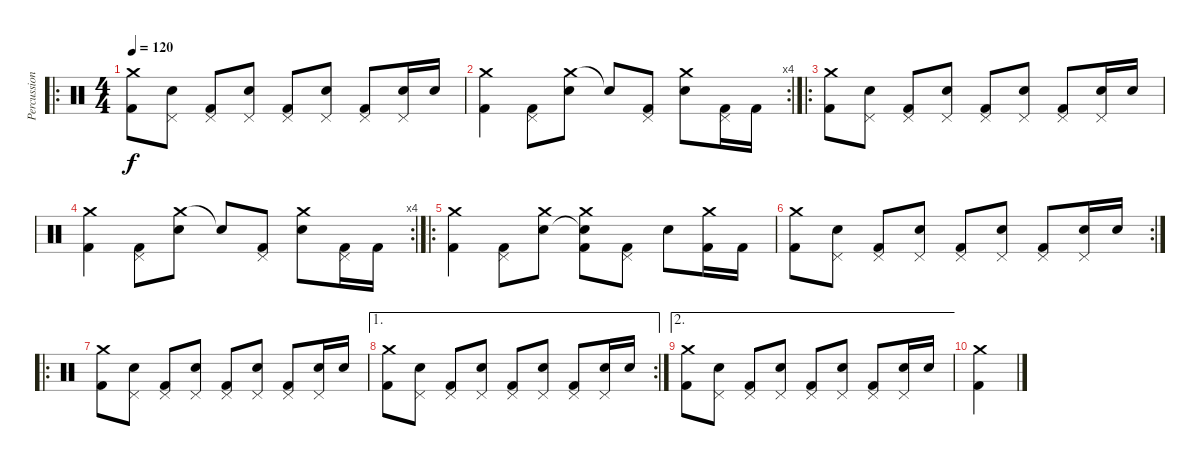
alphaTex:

\track ("Percussions" "Percussion") {instrument percussion}
\staff {score}
\articulation defaults
\ro
\ts (4 4)
\tempo 120
\clef neutral
\ks c
("Crash medium (hit)" "Kick (hit) 2").8{dy f} ("Pedal Hi-Hat (hit)" "Snare (hit) 2").8 ("Pedal Hi-Hat (hit)" "Kick (hit) 2").8 ("Pedal Hi-Hat (hit)" "Snare (hit) 2").8 ("Pedal Hi-Hat (hit)" "Kick (hit) 2").8 ("Pedal Hi-Hat (hit)" "Snare (hit) 2").8 ("Pedal Hi-Hat (hit)" "Kick (hit) 2").8 ("Pedal Hi-Hat (hit)" "Snare (hit) 2").16 "Snare (hit) 2".16 |
\rc 4
("Crash medium (hit)" "Kick (hit) 2").4 ("Pedal Hi-Hat (hit)" "Kick (hit) 2").8 ("Crash medium (hit)" "Snare (hit) 2").8 "Snare (hit)"{t}.8 ("Pedal Hi-Hat (hit)" "Kick (hit) 2").8 ("Crash medium (hit)" "Snare (hit) 2").8 ("Pedal Hi-Hat (hit)" "Kick (hit) 2").16 "Kick (hit) 2".16 |
\ro
("Crash medium (hit)" "Kick (hit) 2").8 ("Pedal Hi-Hat (hit)" "Snare (hit) 2").8 ("Pedal Hi-Hat (hit)" "Kick (hit) 2").8 ("Pedal Hi-Hat (hit)" "Snare (hit) 2").8 ("Pedal Hi-Hat (hit)" "Kick (hit) 2").8 ("Pedal Hi-Hat (hit)" "Snare (hit) 2").8 ("Pedal Hi-Hat (hit)" "Kick (hit) 2").8 ("Pedal Hi-Hat (hit)" "Snare (hit) 2").16 "Snare (hit) 2".16 |
\rc 4
("Crash medium (hit)" "Kick (hit) 2").4 ("Pedal Hi-Hat (hit)" "Kick (hit) 2").8 ("Crash medium (hit)" "Snare (hit) 2").8 "Snare (hit)"{t}.8 ("Pedal Hi-Hat (hit)" "Kick (hit) 2").8 ("Crash medium (hit)" "Snare (hit) 2").8 ("Pedal Hi-Hat (hit)" "Kick (hit) 2").16 "Kick (hit) 2".16 |
\ro
("Crash medium (hit)" "Kick (hit) 2").4 ("Pedal Hi-Hat (hit)" "Kick (hit) 2").8 ("Crash medium (hit)" "Snare (hit) 2").8 ("Crash medium (hit)" "Snare (hit)"{t} "Kick (hit) 2").8 ("Pedal Hi-Hat (hit)" "Kick (hit) 2").8 "Snare (hit) 2".8 ("Crash medium (hit)" "Kick (hit) 2").16 "Kick (hit) 2".16 |
\rc 2
("Crash medium (hit)" "Kick (hit) 2").8 ("Pedal Hi-Hat (hit)" "Snare (hit) 2").8 ("Pedal Hi-Hat (hit)" "Kick (hit) 2").8 ("Pedal Hi-Hat (hit)" "Snare (hit) 2").8 ("Pedal Hi-Hat (hit)" "Kick (hit) 2").8 ("Pedal Hi-Hat (hit)" "Snare (hit) 2").8 ("Pedal Hi-Hat (hit)" "Kick (hit) 2").8 ("Pedal Hi-Hat (hit)" "Snare (hit) 2").16 "Snare (hit) 2".16 |
\ro
("Crash medium (hit)" "Kick (hit) 2").8 ("Pedal Hi-Hat (hit)" "Snare (hit) 2").8 ("Pedal Hi-Hat (hit)" "Kick (hit) 2").8 ("Pedal Hi-Hat (hit)" "Snare (hit) 2").8 ("Pedal Hi-Hat (hit)" "Kick (hit) 2").8 ("Pedal Hi-Hat (hit)" "Snare (hit) 2").8 ("Pedal Hi-Hat (hit)" "Kick (hit) 2").8 ("Pedal Hi-Hat (hit)" "Snare (hit) 2").16 "Snare (hit) 2".16 |
\ae 1
\rc 2
("Crash medium (hit)" "Kick (hit) 2").8 ("Pedal Hi-Hat (hit)" "Snare (hit) 2").8 ("Pedal Hi-Hat (hit)" "Kick (hit) 2").8 ("Pedal Hi-Hat (hit)" "Snare (hit) 2").8 ("Pedal Hi-Hat (hit)" "Kick (hit) 2").8 ("Pedal Hi-Hat (hit)" "Snare (hit) 2").8 ("Pedal Hi-Hat (hit)" "Kick (hit) 2").8 ("Pedal Hi-Hat (hit)" "Snare (hit) 2").16 "Snare (hit) 2".16 |
\ae 2
("Crash medium (hit)" "Kick (hit) 2").8 ("Pedal Hi-Hat (hit)" "Snare (hit) 2").8 ("Pedal Hi-Hat (hit)" "Kick (hit) 2").8 ("Pedal Hi-Hat (hit)" "Snare (hit) 2").8 ("Pedal Hi-Hat (hit)" "Kick (hit) 2").8 ("Pedal Hi-Hat (hit)" "Snare (hit) 2").8 ("Pedal Hi-Hat (hit)" "Kick (hit) 2").8 ("Pedal Hi-Hat (hit)" "Snare (hit) 2").16 "Snare (hit) 2".16 |
("Crash medium (hit)" "Kick (hit) 2").4
